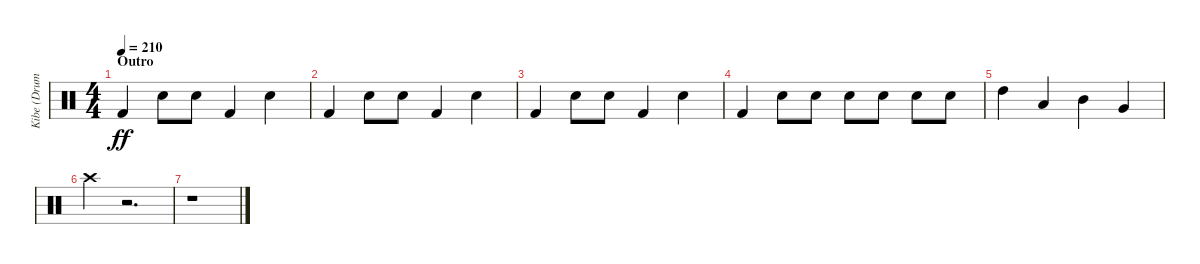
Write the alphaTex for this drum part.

\track ("Kibe (Drums)" "Kibe (Drum") {instrument percussion}
\staff {score}
\articulation defaults
\ts (4 4)
\section ("" "Outro")
\tempo 210
\clef neutral
\ks c "Kick (hit) 2".4{dy ff} "Snare (hit) 2".8 "Snare (hit) 2".8 "Kick (hit) 2".4 "Snare (hit) 2".4
|
"Kick (hit) 2".4 "Snare (hit) 2".8 "Snare (hit) 2".8 "Kick (hit) 2".4 "Snare (hit) 2".4 |
"Kick (hit) 2".4 "Snare (hit) 2".8 "Snare (hit) 2".8 "Kick (hit) 2".4 "Snare (hit) 2".4 |
"Kick (hit) 2".4 "Snare (hit) 2".8 "Snare (hit) 2".8 "Snare (hit) 2".8 "Snare (hit) 2".8 "Snare (hit) 2".8 "Snare (hit) 2".8 |
"High Tom (hit)".4 "Low Tom (hit)".4 "Mid Tom (hit)".4 "Very Low Tom (hit)".4 |
"Crash high (hit)".4 r.2{d} |
r.1
